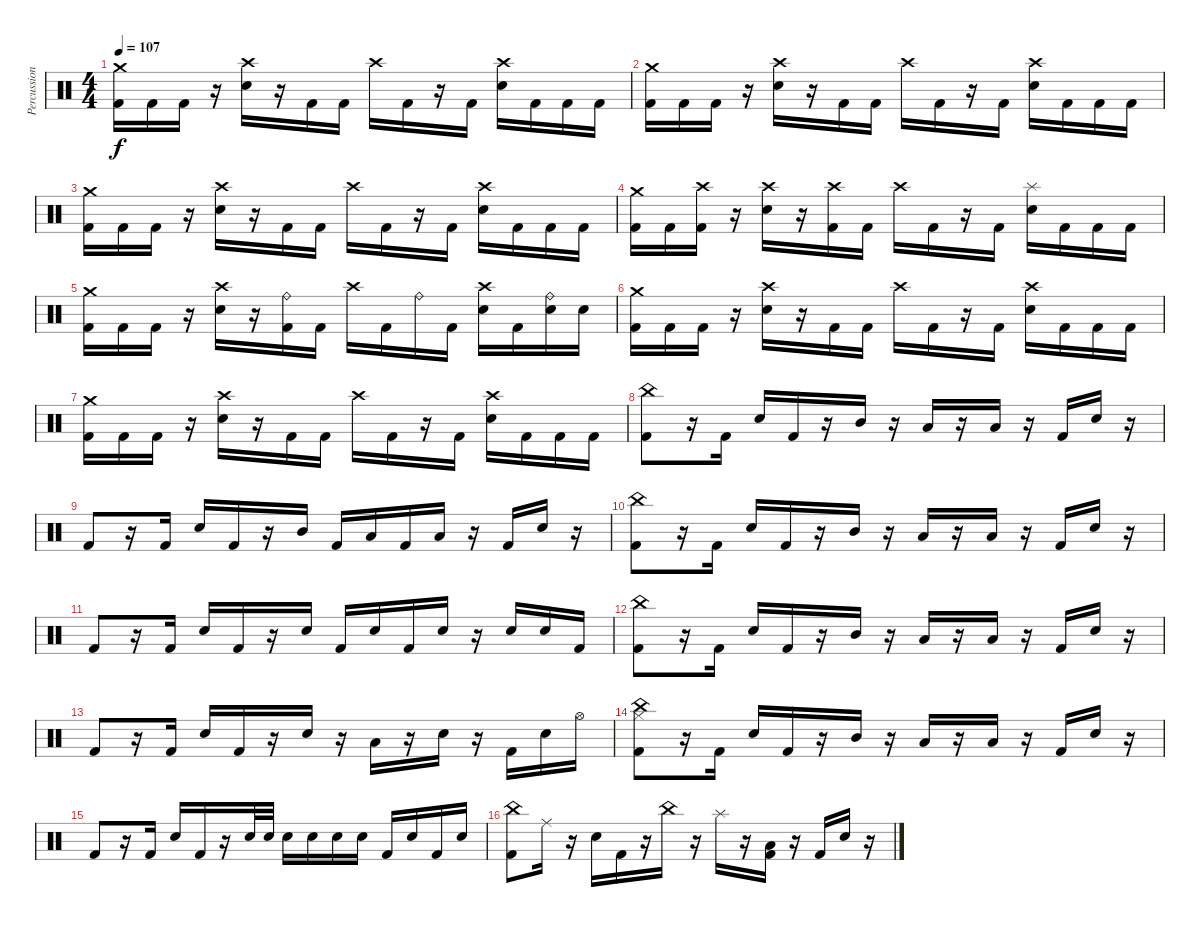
\track ("Percussion" "Percussion") {instrument percussion}
\staff {score}
\articulation defaults
\ts (4 4)
\tempo 107
\clef neutral
\ks c
("Crash medium (hit)" "Kick (hit) 2").16{dy f} "Kick (hit) 2".16 "Kick (hit) 2".16 r.16 ("Crash high (hit)" "Electric Snare (hit)").16 r.16 "Kick (hit) 2".16 "Kick (hit) 2".16 "Crash high (hit)".16 "Kick (hit) 2".16 r.16 "Kick (hit) 2".16 ("Crash high (hit)" "Electric Snare (hit)").16 "Kick (hit) 2".16 "Kick (hit) 2".16 "Kick (hit) 2".16 |
("Crash medium (hit)" "Kick (hit) 2").16 "Kick (hit) 2".16 "Kick (hit) 2".16 r.16 ("Crash high (hit)" "Electric Snare (hit)").16 r.16 "Kick (hit) 2".16 "Kick (hit) 2".16 "Crash high (hit)".16 "Kick (hit) 2".16 r.16 "Kick (hit) 2".16 ("Crash high (hit)" "Electric Snare (hit)").16 "Kick (hit) 2".16 "Kick (hit) 2".16 "Kick (hit) 2".16 |
("Crash medium (hit)" "Kick (hit) 2").16 "Kick (hit) 2".16 "Kick (hit) 2".16 r.16 ("Crash high (hit)" "Electric Snare (hit)").16 r.16 "Kick (hit) 2".16 "Kick (hit) 2".16 "Crash high (hit)".16 "Kick (hit) 2".16 r.16 "Kick (hit) 2".16 ("Crash high (hit)" "Electric Snare (hit)").16 "Kick (hit) 2".16 "Kick (hit) 2".16 "Kick (hit) 2".16 |
("Crash medium (hit)" "Kick (hit) 2").16 "Kick (hit) 2".16 ("Crash high (hit)" "Kick (hit) 2").16 r.16 ("Crash high (hit)" "Electric Snare (hit)").16 r.16 ("Crash high (hit)" "Kick (hit) 2").16 "Kick (hit) 2".16 "Crash high (hit)".16 "Kick (hit) 2".16 r.16 "Kick (hit) 2".16 ("Splash (hit)" "Electric Snare (hit)").16 "Kick (hit) 2".16 "Kick (hit) 2".16 "Kick (hit) 2".16 |
("Crash medium (hit)" "Kick (hit) 2").16 "Kick (hit) 2".16 "Kick (hit) 2".16 r.16 ("Crash high (hit)" "Electric Snare (hit)").16 r.16 ("Ride (bell)" "Kick (hit) 2").16 "Kick (hit) 2".16 "Crash high (hit)".16 "Kick (hit) 2".16 "Ride (bell)".16 "Kick (hit) 2".16 ("Crash high (hit)" "Electric Snare (hit)").16 "Kick (hit) 2".16 ("Ride (bell)" "Electric Snare (hit)").16 "Electric Snare (hit)".16 |
("Crash medium (hit)" "Kick (hit) 2").16 "Kick (hit) 2".16 "Kick (hit) 2".16 r.16 ("Crash high (hit)" "Electric Snare (hit)").16 r.16 "Kick (hit) 2".16 "Kick (hit) 2".16 "Crash high (hit)".16 "Kick (hit) 2".16 r.16 "Kick (hit) 2".16 ("Crash high (hit)" "Electric Snare (hit)").16 "Kick (hit) 2".16 "Kick (hit) 2".16 "Kick (hit) 2".16 |
("Crash medium (hit)" "Kick (hit) 2").16 "Kick (hit) 2".16 "Kick (hit) 2".16 r.16 ("Crash high (hit)" "Electric Snare (hit)").16 r.16 "Kick (hit) 2".16 "Kick (hit) 2".16 "Crash high (hit)".16 "Kick (hit) 2".16 r.16 "Kick (hit) 2".16 ("Crash high (hit)" "Electric Snare (hit)").16 "Kick (hit) 2".16 "Kick (hit) 2".16 "Kick (hit) 2".16 |
("Kick (hit) 2" "China (hit)").8 r.16 "Kick (hit) 2".16 "Electric Snare (hit)".16 "Kick (hit) 2".16 r.16 "Mid Tom (hit)".16 r.16 "Low Tom (hit)".16 r.16 "Low Floor Tom (hit)".16 r.16 "Kick (hit) 2".16 "Electric Snare (hit)".16 r.16 |
"Kick (hit) 2".8 r.16 "Kick (hit) 2".16 "Electric Snare (hit)".16 "Kick (hit) 2".16 r.16 "Mid Tom (hit)".16 "Kick (hit) 2".16 "Low Tom (hit)".16 "Kick (hit) 2".16 "Low Floor Tom (hit)".16 r.16 "Kick (hit) 2".16 "Electric Snare (hit)".16 r.16 |
("Kick (hit) 2" "China (hit)").8 r.16 "Kick (hit) 2".16 "Electric Snare (hit)".16 "Kick (hit) 2".16 r.16 "Mid Tom (hit)".16 r.16 "Low Tom (hit)".16 r.16 "Low Floor Tom (hit)".16 r.16 "Kick (hit) 2".16 "Electric Snare (hit)".16 r.16 |
"Kick (hit) 2".8 r.16 "Kick (hit) 2".16 "Electric Snare (hit)".16 "Kick (hit) 2".16 r.16 "Electric Snare (hit)".16 "Kick (hit) 2".16 "Electric Snare (hit)".16 "Kick (hit) 2".16 "Electric Snare (hit)".16 r.16 "Electric Snare (hit)".16 "Electric Snare (hit)".16 "Kick (hit) 2".16 |
("Kick (hit) 2" "China (hit)").8 r.16 "Kick (hit) 2".16 "Electric Snare (hit)".16 "Kick (hit) 2".16 r.16 "Mid Tom (hit)".16 r.16 "Low Tom (hit)".16 r.16 "Low Floor Tom (hit)".16 r.16 "Kick (hit) 2".16 "Electric Snare (hit)".16 r.16 |
"Kick (hit) 2".8 r.16 "Kick (hit) 2".16 "Electric Snare (hit)".16 "Kick (hit) 2".16 r.16 "Electric Snare (hit)".16 r.16 "Low Tom (hit)".16 r.16 "Electric Snare (hit)".16 r.16 "Kick (hit) 2".16 "Electric Snare (hit)".16 "Hi-Hat (open)".16 |
("Hi-Hat (closed)" "China (hit)" "Kick (hit) 2").8 r.16 "Kick (hit) 2".16 "Electric Snare (hit)".16 "Kick (hit) 2".16 r.16 "Mid Tom (hit)".16 r.16 "Low Tom (hit)".16 r.16 "Low Floor Tom (hit)".16 r.16 "Kick (hit) 2".16 "Electric Snare (hit)".16 r.16 |
"Kick (hit) 2".8 r.16 "Kick (hit) 2".16 "Electric Snare (hit)".16 "Kick (hit) 2".16 r.16 "Electric Snare (hit)".32 "Electric Snare (hit)".32 "Electric Snare (hit)".16 "Electric Snare (hit)".16 "Electric Snare (hit)".16 "Electric Snare (hit)".16 "Kick (hit) 2".16 "Electric Snare (hit)".16 "Kick (hit) 2".16 "Electric Snare (hit)".16 |
("Kick (hit) 2" "China (hit)").8 "Ride (middle)".16 r.16 "Electric Snare (hit)".16 "Kick (hit) 2".16 r.16 "China (hit)".16 r.16 "Splash (hit)".16 r.16 ("Kick (hit) 2" "Low Tom (hit)").16 r.16 "Kick (hit) 2".16 "Electric Snare (hit)".16 r.16
